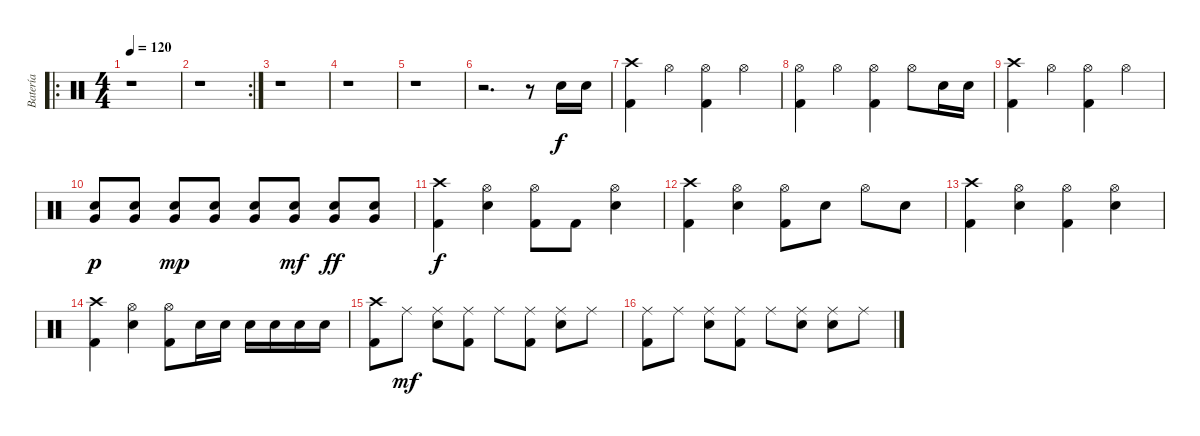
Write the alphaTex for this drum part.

\track ("Batería" "Batería") {instrument percussion}
\staff {score}
\articulation defaults
\ro
\ts (4 4)
\tempo 120
\clef neutral
\ks c
r.1{dy f} |
\rc 2
r.1 |
r.1 |
r.1 |
r.1 |
r.2{d} r.8 "Snare (hit) 2".16 "Snare (hit) 2".16 |
("Crash high (hit)" "Kick (hit) 2").4 "Hi-Hat (open)".4 ("Hi-Hat (open)" "Kick (hit) 2").4 "Hi-Hat (open)".4 |
("Hi-Hat (open)" "Kick (hit) 2").4 "Hi-Hat (open)".4 ("Hi-Hat (open)" "Kick (hit) 2").4 "Hi-Hat (open)".8 "Snare (hit) 2".16 "Snare (hit) 2".16 |
("Crash high (hit)" "Kick (hit) 2").4 "Hi-Hat (open)".4 ("Hi-Hat (open)" "Kick (hit) 2").4 "Hi-Hat (open)".4 |
("Very Low Tom (hit)" "Snare (hit) 2").8{dy p} ("Very Low Tom (hit)" "Snare (hit) 2").8 ("Very Low Tom (hit)" "Snare (hit) 2").8{dy mp} ("Very Low Tom (hit)" "Snare (hit) 2").8 ("Very Low Tom (hit)" "Snare (hit) 2").8 ("Very Low Tom (hit)" "Snare (hit) 2").8{dy mf} ("Very Low Tom (hit)" "Snare (hit) 2").8{dy ff} ("Very Low Tom (hit)" "Snare (hit) 2").8 |
("Crash high (hit)" "Kick (hit) 2").4{dy f} ("Hi-Hat (open)" "Snare (hit) 2").4 ("Hi-Hat (open)" "Kick (hit) 2").8 "Kick (hit) 2".8 ("Hi-Hat (open)" "Snare (hit) 2").4 |
("Crash high (hit)" "Kick (hit) 2").4 ("Hi-Hat (open)" "Snare (hit) 2").4 ("Hi-Hat (open)" "Kick (hit) 2").8 "Snare (hit) 2".8 "Hi-Hat (open)".8 "Snare (hit) 2".8 |
("Crash high (hit)" "Kick (hit) 2").4 ("Hi-Hat (open)" "Snare (hit) 2").4 ("Hi-Hat (open)" "Kick (hit) 2").4 ("Hi-Hat (open)" "Snare (hit) 2").4 |
("Crash high (hit)" "Kick (hit) 2").4 ("Hi-Hat (open)" "Snare (hit) 2").4 ("Hi-Hat (open)" "Kick (hit) 2").8 "Snare (hit) 2".16 "Snare (hit) 2".16 "Snare (hit) 2".16 "Snare (hit) 2".16 "Snare (hit) 2".16 "Snare (hit) 2".16 |
("Crash high (hit)" "Kick (hit) 2").8 "Ride (middle)".8{dy mf} ("Ride (middle)" "Snare (hit) 2").8 ("Ride (middle)" "Kick (hit) 2").8 "Ride (middle)".8 ("Ride (middle)" "Kick (hit) 2").8 ("Ride (middle)" "Snare (hit) 2").8 "Ride (middle)".8 |
("Ride (middle)" "Kick (hit) 2").8 "Ride (middle)".8 ("Ride (middle)" "Snare (hit) 2").8 ("Ride (middle)" "Kick (hit) 2").8 "Ride (middle)".8 ("Ride (middle)" "Snare (hit) 2").8 ("Ride (middle)" "Snare (hit) 2").8 "Ride (middle)".8
